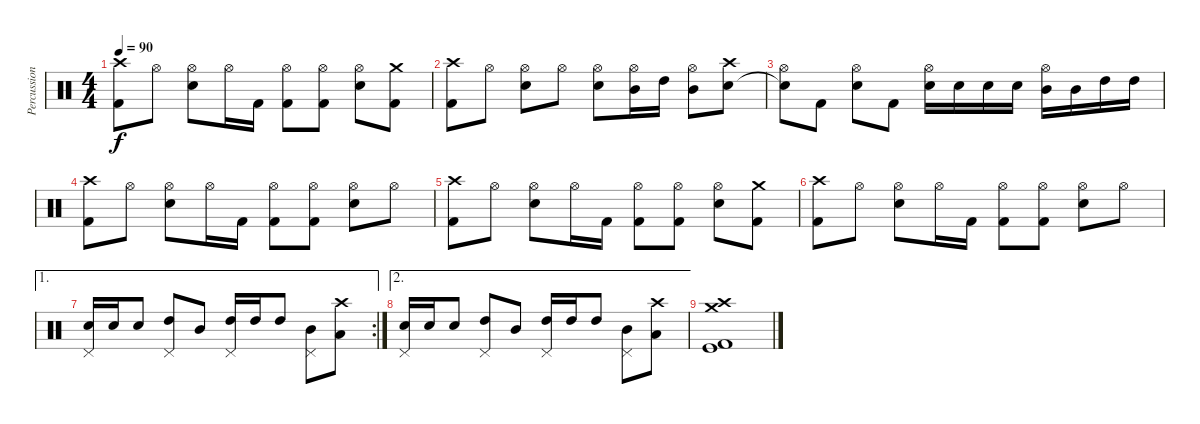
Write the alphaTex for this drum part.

\track ("Percussion" "Percussion") {instrument percussion}
\staff {score}
\articulation defaults
\ts (4 4)
\tempo 90
\clef neutral
\ks c
("Crash high (hit)" "Kick (hit) 2").8{dy f} "Hi-Hat (open)".8 ("Hi-Hat (open)" "Snare (hit) 2").8 "Hi-Hat (open)".16 "Kick (hit) 2".16 ("Hi-Hat (open)" "Kick (hit) 2").8 ("Hi-Hat (open)" "Kick (hit) 2").8 ("Hi-Hat (open)" "Snare (hit) 2").8 ("Crash medium (hit)" "Kick (hit) 2").8 |
("Crash high (hit)" "Kick (hit) 2").8 "Hi-Hat (open)".8 ("Hi-Hat (open)" "Snare (hit) 2").8 "Hi-Hat (open)".8 ("Hi-Hat (open)" "Snare (hit) 2").8 ("Hi-Hat (open)" "Mid Tom (hit)").16 "High Tom (hit)".16 ("Hi-Hat (open)" "Mid Tom (hit)").8 ("Crash high (hit)" "Snare (hit) 2").8 |
("Hi-Hat (open)" "Snare (hit)"{t}).8 "Kick (hit) 2".8 ("Hi-Hat (open)" "Snare (hit) 2").8 "Kick (hit) 2".8 ("Snare (hit) 2" "Hi-Hat (open)").16 "Snare (hit) 2".16 "Snare (hit) 2".16 "Snare (hit) 2".16 ("Mid Tom (hit)" "Hi-Hat (open)").16 "Mid Tom (hit)".16 "High Tom (hit)".16 "High Tom (hit)".16 |
("Crash high (hit)" "Kick (hit) 2").8 "Hi-Hat (open)".8 ("Hi-Hat (open)" "Snare (hit) 2").8 "Hi-Hat (open)".16 "Kick (hit) 2".16 ("Hi-Hat (open)" "Kick (hit) 2").8 ("Hi-Hat (open)" "Kick (hit) 2").8 ("Hi-Hat (open)" "Snare (hit) 2").8 "Hi-Hat (open)".8 |
("Crash high (hit)" "Kick (hit) 2").8 "Hi-Hat (open)".8 ("Hi-Hat (open)" "Snare (hit) 2").8 "Hi-Hat (open)".16 "Kick (hit) 2".16 ("Hi-Hat (open)" "Kick (hit) 2").8 ("Hi-Hat (open)" "Kick (hit) 2").8 ("Hi-Hat (open)" "Snare (hit) 2").8 ("Crash medium (hit)" "Kick (hit) 2").8 |
("Crash high (hit)" "Kick (hit) 2").8 "Hi-Hat (open)".8 ("Hi-Hat (open)" "Snare (hit) 2").8 "Hi-Hat (open)".16 "Kick (hit) 2".16 ("Hi-Hat (open)" "Kick (hit) 2").8 ("Hi-Hat (open)" "Kick (hit) 2").8 ("Hi-Hat (open)" "Snare (hit) 2").8 "Hi-Hat (open)".8 |
\ae 1
\rc 2
("Snare (hit) 2" "Pedal Hi-Hat (hit)").16 "Snare (hit) 2".16 "Snare (hit) 2".8 ("High Tom (hit)" "Pedal Hi-Hat (hit)").8 "Mid Tom (hit)".8 ("High Tom (hit)" "Pedal Hi-Hat (hit)").16 "High Tom (hit)".16 "High Tom (hit)".8 ("Mid Tom (hit)" "Pedal Hi-Hat (hit)").8 ("Crash high (hit)" "Low Tom (hit)").8 |
\ae 2
("Snare (hit) 2" "Pedal Hi-Hat (hit)").16 "Snare (hit) 2".16 "Snare (hit) 2".8 ("High Tom (hit)" "Pedal Hi-Hat (hit)").8 "Mid Tom (hit)".8 ("High Tom (hit)" "Pedal Hi-Hat (hit)").16 "High Tom (hit)".16 "High Tom (hit)".8 ("Mid Tom (hit)" "Pedal Hi-Hat (hit)").8 ("Crash high (hit)" "Low Tom (hit)").8 |
("Crash high (hit)" "Crash medium (hit)" "Kick (hit)" "Kick (hit) 2").1
